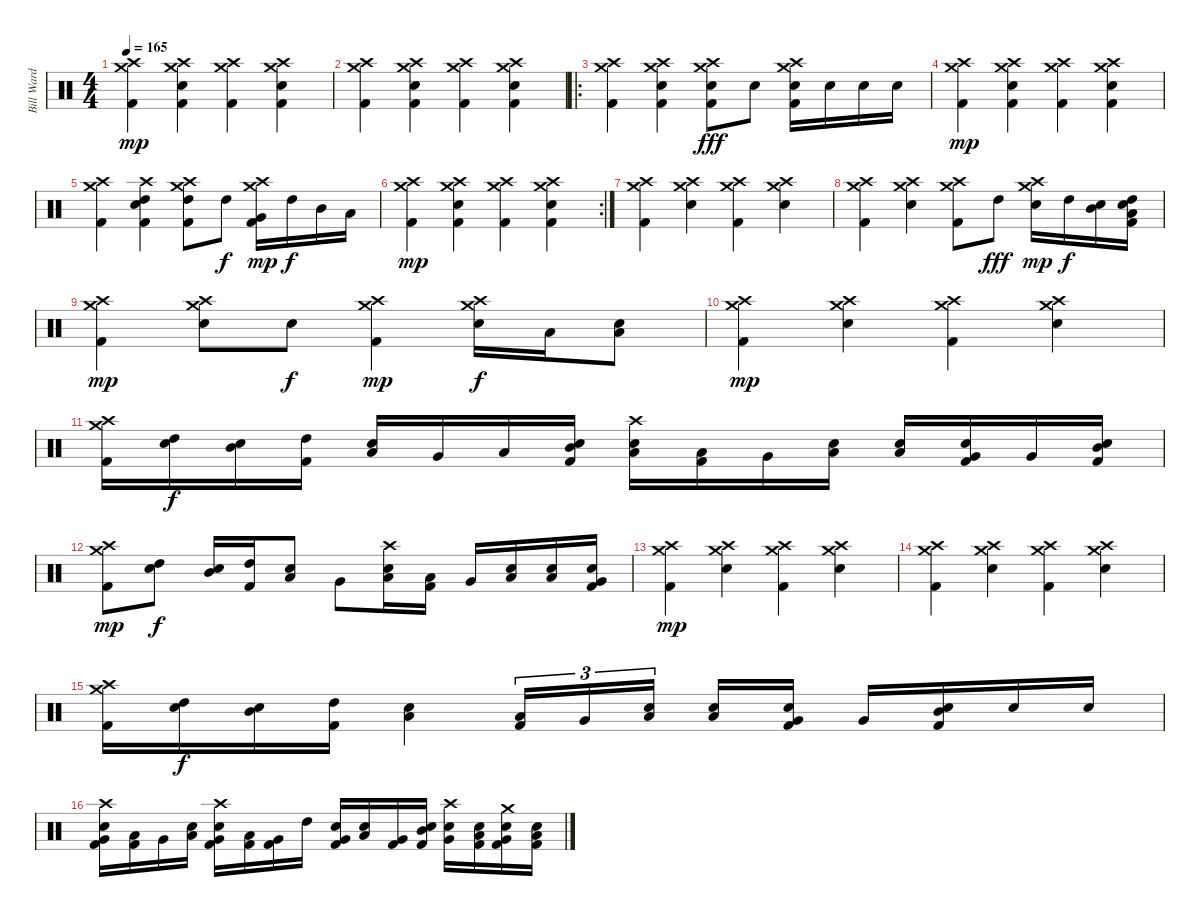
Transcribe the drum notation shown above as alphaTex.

\track ("Bill Ward" "Bill Ward") {instrument percussion}
\staff {score}
\articulation defaults
\ts (4 4)
\tempo 165
\clef neutral
\ks c
("Crash high (hit)" "Crash medium (hit)" "Kick (hit) 2").4{dy mp} ("Crash high (hit)" "Crash medium (hit)" "Snare (hit) 2" "Kick (hit) 2").4 ("Crash high (hit)" "Crash medium (hit)" "Kick (hit) 2").4 ("Crash high (hit)" "Crash medium (hit)" "Snare (hit) 2" "Kick (hit) 2").4 |
("Crash high (hit)" "Crash medium (hit)" "Kick (hit) 2").4 ("Crash high (hit)" "Crash medium (hit)" "Snare (hit) 2" "Kick (hit) 2").4 ("Crash high (hit)" "Crash medium (hit)" "Kick (hit) 2").4 ("Crash high (hit)" "Crash medium (hit)" "Snare (hit) 2" "Kick (hit) 2").4 |
\ro
("Crash high (hit)" "Crash medium (hit)" "Kick (hit) 2").4 ("Crash high (hit)" "Crash medium (hit)" "Snare (hit) 2" "Kick (hit) 2").4 ("Crash high (hit)" "Crash medium (hit)" "Snare (hit) 2" "Kick (hit) 2").8{dy fff} "Snare (hit) 2".8 ("Crash high (hit)" "Crash medium (hit)" "Snare (hit) 2" "Kick (hit) 2").16 "Snare (hit) 2".16 "Snare (hit) 2".16 "Snare (hit) 2".16 |
("Crash high (hit)" "Crash medium (hit)" "Kick (hit) 2").4{dy mp} ("Crash high (hit)" "Crash medium (hit)" "Snare (hit) 2" "Kick (hit) 2").4 ("Crash high (hit)" "Crash medium (hit)" "Kick (hit) 2").4 ("Crash high (hit)" "Crash medium (hit)" "Snare (hit) 2" "Kick (hit) 2").4 |
("Crash high (hit)" "Crash medium (hit)" "Kick (hit) 2").4 ("Crash high (hit)" "High Tom (hit)" "Snare (hit) 2" "Kick (hit) 2").4 ("Crash high (hit)" "Crash medium (hit)" "High Tom (hit)" "Kick (hit) 2").8 "High Tom (hit)".8{dy f} ("Crash high (hit)" "Crash medium (hit)" "Very Low Tom (hit)" "Kick (hit) 2").16{dy mp} "High Tom (hit)".16{dy f} "Mid Tom (hit)".16 "Low Tom (hit)".16 |
\rc 2
("Crash high (hit)" "Crash medium (hit)" "Kick (hit) 2").4{dy mp} ("Crash high (hit)" "Crash medium (hit)" "Snare (hit) 2" "Kick (hit) 2").4 ("Crash high (hit)" "Crash medium (hit)" "Kick (hit) 2").4 ("Crash high (hit)" "Crash medium (hit)" "Snare (hit) 2" "Kick (hit) 2").4 |
("Crash high (hit)" "Crash medium (hit)" "Kick (hit) 2").4 ("Crash high (hit)" "Crash medium (hit)" "Snare (hit) 2").4 ("Crash high (hit)" "Crash medium (hit)" "Kick (hit) 2").4 ("Crash high (hit)" "Crash medium (hit)" "Snare (hit) 2").4 |
("Crash high (hit)" "Crash medium (hit)" "Kick (hit) 2").4 ("Crash high (hit)" "Crash medium (hit)" "Snare (hit) 2").4 ("Crash high (hit)" "Crash medium (hit)" "Kick (hit) 2").8 "High Tom (hit)".8{dy fff} ("Crash high (hit)" "Crash medium (hit)" "Snare (hit) 2").16{dy mp} "High Tom (hit)".16{dy f} ("Mid Tom (hit)" "Snare (hit) 2").16 ("High Tom (hit)" "Snare (hit) 2" "Low Tom (hit)" "Kick (hit) 2").16 |
("Crash high (hit)" "Crash medium (hit)" "Kick (hit) 2").4{dy mp} ("Crash high (hit)" "Crash medium (hit)" "Snare (hit) 2").8 "Snare (hit) 2".8{dy f} ("Crash high (hit)" "Crash medium (hit)" "Kick (hit) 2").4{dy mp} ("Crash high (hit)" "Crash medium (hit)" "Snare (hit) 2").16{dy f} "Low Tom (hit)".16 ("Low Tom (hit)" "Snare (hit) 2").8 |
("Crash high (hit)" "Crash medium (hit)" "Kick (hit) 2").4{dy mp} ("Crash high (hit)" "Crash medium (hit)" "Snare (hit) 2").4 ("Crash high (hit)" "Crash medium (hit)" "Kick (hit) 2").4 ("Crash high (hit)" "Crash medium (hit)" "Snare (hit) 2").4 |
("Crash high (hit)" "Crash medium (hit)" "Kick (hit) 2").16 ("High Tom (hit)" "Snare (hit) 2").16{dy f} ("Mid Tom (hit)" "Snare (hit) 2").16 ("High Tom (hit)" "Kick (hit) 2").16 ("Low Tom (hit)" "Snare (hit) 2").16 "Very Low Tom (hit)".16 "Low Tom (hit)".16 ("Mid Tom (hit)" "Snare (hit) 2" "Kick (hit) 2").16 ("Crash high (hit)" "Low Tom (hit)" "Snare (hit) 2").16 ("Low Tom (hit)" "Kick (hit) 2").16 "Very Low Tom (hit)".16 ("Low Tom (hit)" "Snare (hit) 2").16 ("Low Tom (hit)" "Snare (hit) 2").16 ("Very Low Tom (hit)" "Snare (hit) 2" "Kick (hit) 2").16 "Very Low Tom (hit)".16 ("Mid Tom (hit)" "Snare (hit) 2" "Kick (hit) 2").16 |
("Crash high (hit)" "Crash medium (hit)" "Kick (hit) 2").8{dy mp} ("High Tom (hit)" "Snare (hit) 2").8{dy f} ("Mid Tom (hit)" "Snare (hit) 2").16 ("High Tom (hit)" "Kick (hit) 2").16 ("Low Tom (hit)" "Snare (hit) 2").8 "Very Low Tom (hit)".8 ("Crash high (hit)" "Low Tom (hit)" "Snare (hit) 2").16 ("Low Tom (hit)" "Kick (hit) 2").16 "Very Low Tom (hit)".16 ("Low Tom (hit)" "Snare (hit) 2").16 ("Low Tom (hit)" "Snare (hit) 2").16 ("Very Low Tom (hit)" "Snare (hit) 2" "Kick (hit) 2").16 |
("Crash high (hit)" "Crash medium (hit)" "Kick (hit) 2").4{dy mp} ("Crash high (hit)" "Crash medium (hit)" "Snare (hit) 2").4 ("Crash high (hit)" "Crash medium (hit)" "Kick (hit) 2").4 ("Crash high (hit)" "Crash medium (hit)" "Snare (hit) 2").4 |
("Crash high (hit)" "Crash medium (hit)" "Kick (hit) 2").4 ("Crash high (hit)" "Crash medium (hit)" "Snare (hit) 2").4 ("Crash high (hit)" "Crash medium (hit)" "Kick (hit) 2").4 ("Crash high (hit)" "Crash medium (hit)" "Snare (hit) 2").4 |
("Crash high (hit)" "Crash medium (hit)" "Kick (hit) 2").16 ("High Tom (hit)" "Snare (hit) 2").16{dy f} ("Mid Tom (hit)" "Snare (hit) 2").16 ("High Tom (hit)" "Kick (hit) 2").16 ("Low Tom (hit)" "Snare (hit) 2").4 ("Low Tom (hit)" "Kick (hit) 2").16{tu (3 2)} "Very Low Tom (hit)".16{tu (3 2)} ("Low Tom (hit)" "Snare (hit) 2").16{tu (3 2) beam splitsecondary} ("Low Tom (hit)" "Snare (hit) 2").16 ("Very Low Tom (hit)" "Snare (hit) 2" "Kick (hit) 2").16 "Very Low Tom (hit)".16 ("Mid Tom (hit)" "Snare (hit) 2" "Kick (hit) 2").16 "Snare (hit) 2".16 "Snare (hit) 2".16 |
("Crash high (hit)" "Very Low Tom (hit)" "Snare (hit) 2" "Kick (hit) 2").16 ("Low Tom (hit)" "Kick (hit) 2").16 "Very Low Tom (hit)".16 ("Low Tom (hit)" "Snare (hit) 2").16 ("Crash high (hit)" "Very Low Tom (hit)" "Snare (hit) 2" "Kick (hit) 2").16 ("Low Tom (hit)" "Kick (hit) 2").16 ("Very Low Tom (hit)" "Kick (hit) 2").16 "High Tom (hit)".16 ("Very Low Tom (hit)" "Snare (hit) 2" "Kick (hit) 2").16 ("Low Tom (hit)" "Snare (hit) 2").16 ("Very Low Tom (hit)" "Kick (hit) 2").16 ("Mid Tom (hit)" "Snare (hit) 2" "Kick (hit) 2").16 ("Crash high (hit)" "Very Low Tom (hit)" "Snare (hit) 2").16 ("Low Tom (hit)" "Snare (hit) 2" "Kick (hit) 2").16 ("Crash medium (hit)" "Very Low Tom (hit)" "Snare (hit) 2" "Kick (hit) 2").16 ("Low Tom (hit)" "Snare (hit) 2" "Kick (hit) 2").16
